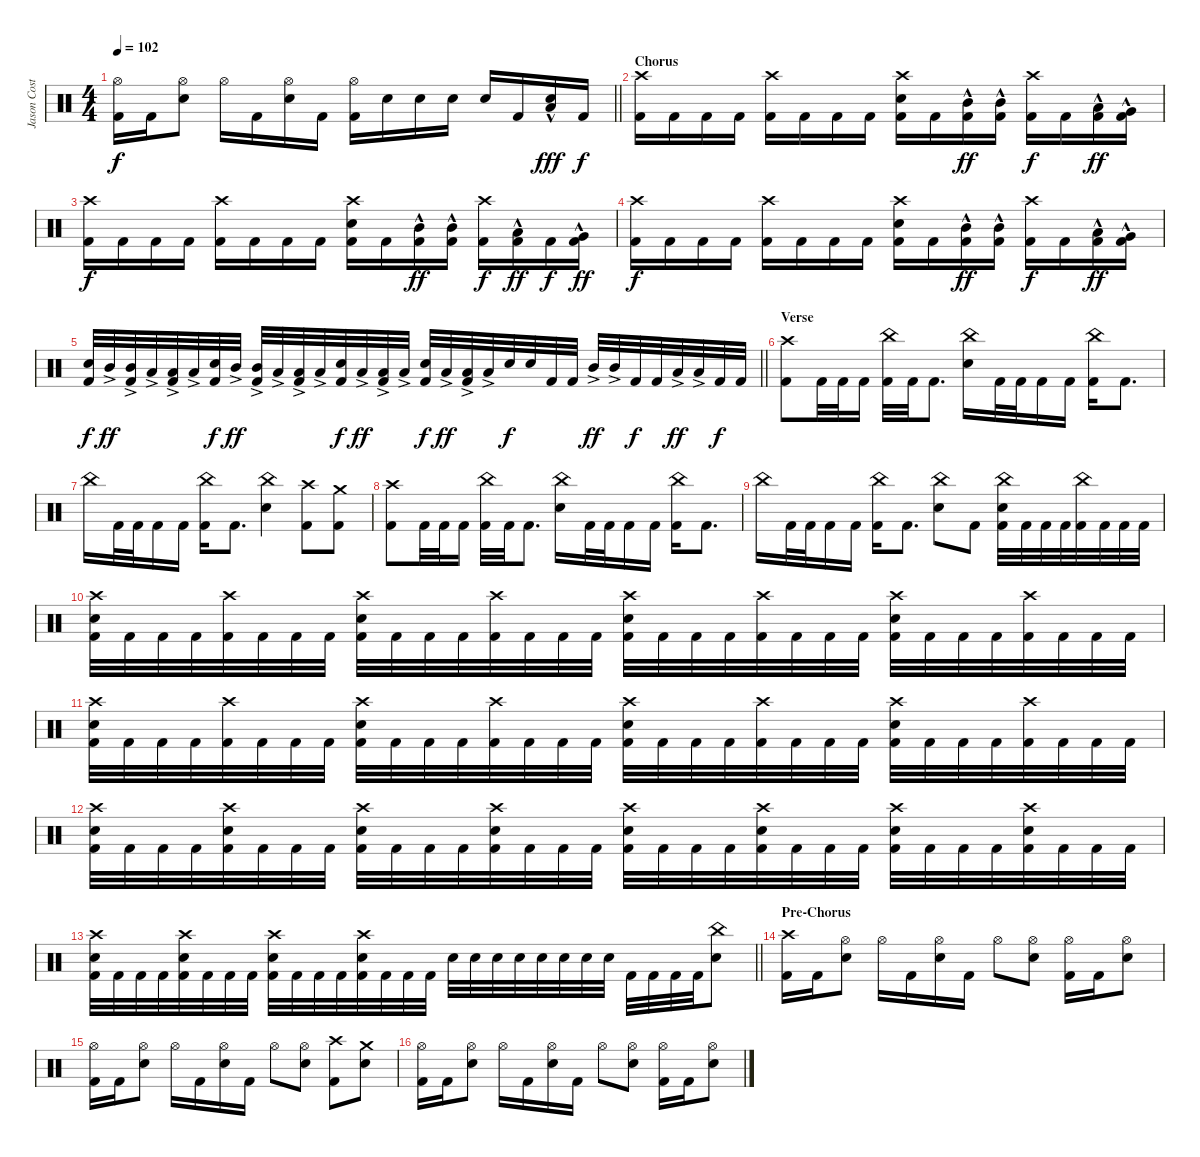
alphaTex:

\track ("Jason Costa" "Jason Cost") {instrument percussion}
\staff {score}
\articulation defaults
\ts (4 4)
\tempo 102
\clef neutral
\barLineRight lightlight
\ks c
("Hi-Hat (open)" "Kick (hit) 2").16{dy f} "Kick (hit) 2".16 ("Snare (hit) 2" "Hi-Hat (open)").8 "Hi-Hat (open)".16 "Kick (hit) 2".16 ("Snare (hit) 2" "Hi-Hat (open)").16 "Kick (hit) 2".16 ("Hi-Hat (open)" "Kick (hit) 2").16 "Snare (hit) 2".16 "Snare (hit) 2".16 "Snare (hit) 2".16 "Snare (hit) 2".16 "Kick (hit) 2".16 ("Snare (hit) 2" "Low Floor Tom (hit)"{hac}).16{dy fff} "Kick (hit) 2".16{dy f} |
\section ("" "Chorus")
("Crash high (hit)" "Kick (hit) 2").16 "Kick (hit) 2".16 "Kick (hit) 2".16 "Kick (hit) 2".16 ("Crash high (hit)" "Kick (hit) 2").16 "Kick (hit) 2".16 "Kick (hit) 2".16 "Kick (hit) 2".16 ("Crash high (hit)" "Snare (hit) 2" "Kick (hit) 2").16 "Kick (hit) 2".16 ("Mid Tom (hit)"{hac} "Kick (hit) 2").16{dy ff} ("Mid Tom (hit)"{hac} "Kick (hit) 2").16 ("Crash high (hit)" "Kick (hit) 2").16{dy f} "Kick (hit) 2".16 ("Low Tom (hit)"{hac} "Kick (hit) 2").16{dy ff} ("Very Low Tom (hit)"{hac} "Kick (hit) 2").16 |
("Crash high (hit)" "Kick (hit) 2").16{dy f} "Kick (hit) 2".16 "Kick (hit) 2".16 "Kick (hit) 2".16 ("Crash high (hit)" "Kick (hit) 2").16 "Kick (hit) 2".16 "Kick (hit) 2".16 "Kick (hit) 2".16 ("Crash high (hit)" "Snare (hit) 2" "Kick (hit) 2").16 "Kick (hit) 2".16 ("Mid Tom (hit)"{hac} "Kick (hit) 2").16{dy ff} ("Mid Tom (hit)"{hac} "Kick (hit) 2").16 ("Crash high (hit)" "Kick (hit) 2").16{dy f} ("Low Tom (hit)"{hac} "Kick (hit) 2").16{dy ff} "Kick (hit) 2".16{dy f} ("Very Low Tom (hit)"{hac} "Kick (hit) 2").16{dy ff} |
("Crash high (hit)" "Kick (hit) 2").16{dy f} "Kick (hit) 2".16 "Kick (hit) 2".16 "Kick (hit) 2".16 ("Crash high (hit)" "Kick (hit) 2").16 "Kick (hit) 2".16 "Kick (hit) 2".16 "Kick (hit) 2".16 ("Crash high (hit)" "Snare (hit) 2" "Kick (hit) 2").16 "Kick (hit) 2".16 ("Mid Tom (hit)"{hac} "Kick (hit) 2").16{dy ff} ("Mid Tom (hit)"{hac} "Kick (hit) 2").16 ("Crash high (hit)" "Kick (hit) 2").16{dy f} "Kick (hit) 2".16 ("Low Tom (hit)"{hac} "Kick (hit) 2").16{dy ff} ("Very Low Tom (hit)"{hac} "Kick (hit) 2").16 |
\barLineRight lightlight
("Snare (hit) 2" "Kick (hit) 2").32{dy f} "Mid Tom (hit)"{ac}.32{dy ff} ("Mid Tom (hit)"{ac} "Kick (hit) 2").32 "Low Tom (hit)"{ac}.32 ("Low Tom (hit)"{ac} "Kick (hit) 2").32 "Low Tom (hit)"{ac}.32 ("Snare (hit) 2" "Kick (hit) 2").32{dy f} "Mid Tom (hit)"{ac}.32{dy ff} ("Mid Tom (hit)"{ac} "Kick (hit) 2").32 "Low Tom (hit)"{ac}.32 ("Low Tom (hit)"{ac} "Kick (hit) 2").32 "Low Tom (hit)"{ac}.32 ("Snare (hit) 2" "Kick (hit) 2").32{dy f} "Low Tom (hit)"{ac}.32{dy ff} ("Low Tom (hit)"{ac} "Kick (hit) 2").32 "Low Tom (hit)"{ac}.32 ("Snare (hit) 2" "Kick (hit) 2").32{dy f} "Low Tom (hit)"{ac}.32{dy ff} ("Low Tom (hit)"{ac} "Kick (hit) 2").32 "Low Tom (hit)"{ac}.32 "Snare (hit) 2".32{dy f} "Snare (hit) 2".32 "Kick (hit) 2".32 "Kick (hit) 2".32 "Mid Tom (hit)"{ac}.32{dy ff} "Mid Tom (hit)"{ac}.32 "Kick (hit) 2".32{dy f} "Kick (hit) 2".32 "Low Tom (hit)"{ac}.32{dy ff} "Low Tom (hit)"{ac}.32 "Kick (hit) 2".32{dy f} "Kick (hit) 2".32 |
\section ("" "Verse")
("Crash high (hit)" "Kick (hit) 2").8 "Kick (hit) 2".32 "Kick (hit) 2".32 "Kick (hit) 2".16 ("China (hit)" "Kick (hit) 2").32 "Kick (hit) 2".32 "Kick (hit) 2".8{d} ("China (hit)" "Snare (hit) 2").16 "Kick (hit) 2".32 "Kick (hit) 2".32 "Kick (hit) 2".16 "Kick (hit) 2".16 ("China (hit)" "Kick (hit) 2").16 "Kick (hit) 2".8{d} |
"China (hit)".16 "Kick (hit) 2".32 "Kick (hit) 2".32 "Kick (hit) 2".16 "Kick (hit) 2".16 ("China (hit)" "Kick (hit) 2").16 "Kick (hit) 2".8{d} ("China (hit)" "Snare (hit) 2").4 ("Crash high (hit)" "Kick (hit) 2").8 ("Crash medium (hit)" "Kick (hit) 2").8 |
("Crash high (hit)" "Kick (hit) 2").8 "Kick (hit) 2".32 "Kick (hit) 2".32 "Kick (hit) 2".16 ("China (hit)" "Kick (hit) 2").32 "Kick (hit) 2".32 "Kick (hit) 2".8{d} ("China (hit)" "Snare (hit) 2").16 "Kick (hit) 2".32 "Kick (hit) 2".32 "Kick (hit) 2".16 "Kick (hit) 2".16 ("China (hit)" "Kick (hit) 2").16 "Kick (hit) 2".8{d} |
"China (hit)".16 "Kick (hit) 2".32 "Kick (hit) 2".32 "Kick (hit) 2".16 "Kick (hit) 2".16 ("China (hit)" "Kick (hit) 2").16 "Kick (hit) 2".8{d} ("China (hit)" "Snare (hit) 2").8 "Kick (hit) 2".8 ("China (hit)" "Snare (hit) 2" "Kick (hit) 2").32 "Kick (hit) 2".32 "Kick (hit) 2".32 "Kick (hit) 2".32 ("China (hit)" "Kick (hit) 2").32 "Kick (hit) 2".32 "Kick (hit) 2".32 "Kick (hit) 2".32 |
("Crash high (hit)" "Snare (hit) 2" "Kick (hit) 2").32 "Kick (hit) 2".32 "Kick (hit) 2".32 "Kick (hit) 2".32 ("Crash high (hit)" "Kick (hit) 2").32 "Kick (hit) 2".32 "Kick (hit) 2".32 "Kick (hit) 2".32 ("Crash high (hit)" "Snare (hit) 2" "Kick (hit) 2").32 "Kick (hit) 2".32 "Kick (hit) 2".32 "Kick (hit) 2".32 ("Crash high (hit)" "Kick (hit) 2").32 "Kick (hit) 2".32 "Kick (hit) 2".32 "Kick (hit) 2".32 ("Crash high (hit)" "Snare (hit) 2" "Kick (hit) 2").32 "Kick (hit) 2".32 "Kick (hit) 2".32 "Kick (hit) 2".32 ("Crash high (hit)" "Kick (hit) 2").32 "Kick (hit) 2".32 "Kick (hit) 2".32 "Kick (hit) 2".32 ("Crash high (hit)" "Snare (hit) 2" "Kick (hit) 2").32 "Kick (hit) 2".32 "Kick (hit) 2".32 "Kick (hit) 2".32 ("Crash high (hit)" "Kick (hit) 2").32 "Kick (hit) 2".32 "Kick (hit) 2".32 "Kick (hit) 2".32 |
("Crash high (hit)" "Snare (hit) 2" "Kick (hit) 2").32 "Kick (hit) 2".32 "Kick (hit) 2".32 "Kick (hit) 2".32 ("Crash high (hit)" "Kick (hit) 2").32 "Kick (hit) 2".32 "Kick (hit) 2".32 "Kick (hit) 2".32 ("Crash high (hit)" "Snare (hit) 2" "Kick (hit) 2").32 "Kick (hit) 2".32 "Kick (hit) 2".32 "Kick (hit) 2".32 ("Crash high (hit)" "Kick (hit) 2").32 "Kick (hit) 2".32 "Kick (hit) 2".32 "Kick (hit) 2".32 ("Crash high (hit)" "Snare (hit) 2" "Kick (hit) 2").32 "Kick (hit) 2".32 "Kick (hit) 2".32 "Kick (hit) 2".32 ("Crash high (hit)" "Kick (hit) 2").32 "Kick (hit) 2".32 "Kick (hit) 2".32 "Kick (hit) 2".32 ("Crash high (hit)" "Snare (hit) 2" "Kick (hit) 2").32 "Kick (hit) 2".32 "Kick (hit) 2".32 "Kick (hit) 2".32 ("Crash high (hit)" "Kick (hit) 2").32 "Kick (hit) 2".32 "Kick (hit) 2".32 "Kick (hit) 2".32 |
("Crash high (hit)" "Snare (hit) 2" "Kick (hit) 2").32 "Kick (hit) 2".32 "Kick (hit) 2".32 "Kick (hit) 2".32 ("Crash high (hit)" "Snare (hit) 2" "Kick (hit) 2").32 "Kick (hit) 2".32 "Kick (hit) 2".32 "Kick (hit) 2".32 ("Crash high (hit)" "Snare (hit) 2" "Kick (hit) 2").32 "Kick (hit) 2".32 "Kick (hit) 2".32 "Kick (hit) 2".32 ("Crash high (hit)" "Snare (hit) 2" "Kick (hit) 2").32 "Kick (hit) 2".32 "Kick (hit) 2".32 "Kick (hit) 2".32 ("Crash high (hit)" "Snare (hit) 2" "Kick (hit) 2").32 "Kick (hit) 2".32 "Kick (hit) 2".32 "Kick (hit) 2".32 ("Crash high (hit)" "Snare (hit) 2" "Kick (hit) 2").32 "Kick (hit) 2".32 "Kick (hit) 2".32 "Kick (hit) 2".32 ("Crash high (hit)" "Snare (hit) 2" "Kick (hit) 2").32 "Kick (hit) 2".32 "Kick (hit) 2".32 "Kick (hit) 2".32 ("Crash high (hit)" "Snare (hit) 2" "Kick (hit) 2").32 "Kick (hit) 2".32 "Kick (hit) 2".32 "Kick (hit) 2".32 |
\barLineRight lightlight
("Crash high (hit)" "Snare (hit) 2" "Kick (hit) 2").32 "Kick (hit) 2".32 "Kick (hit) 2".32 "Kick (hit) 2".32 ("Crash high (hit)" "Snare (hit) 2" "Kick (hit) 2").32 "Kick (hit) 2".32 "Kick (hit) 2".32 "Kick (hit) 2".32 ("Crash high (hit)" "Snare (hit) 2" "Kick (hit) 2").32 "Kick (hit) 2".32 "Kick (hit) 2".32 "Kick (hit) 2".32 ("Crash high (hit)" "Snare (hit) 2" "Kick (hit) 2").32 "Kick (hit) 2".32 "Kick (hit) 2".32 "Kick (hit) 2".32 "Snare (hit) 2".32 "Snare (hit) 2".32 "Snare (hit) 2".32 "Snare (hit) 2".32 "Snare (hit) 2".32 "Snare (hit) 2".32 "Snare (hit) 2".32 "Snare (hit) 2".32 "Kick (hit) 2".32 "Kick (hit) 2".32 "Kick (hit) 2".32 "Kick (hit) 2".32 ("China (hit)" "Snare (hit) 2").8 |
\section ("" "Pre-Chorus")
("Crash high (hit)" "Kick (hit) 2").16 "Kick (hit) 2".16 ("Snare (hit) 2" "Hi-Hat (open)").8 "Hi-Hat (open)".16 "Kick (hit) 2".16 ("Snare (hit) 2" "Hi-Hat (open)").16 "Kick (hit) 2".16 "Hi-Hat (open)".8 ("Snare (hit) 2" "Hi-Hat (open)").8 ("Hi-Hat (open)" "Kick (hit) 2").16 "Kick (hit) 2".16 ("Snare (hit) 2" "Hi-Hat (open)").8 |
("Hi-Hat (open)" "Kick (hit) 2").16 "Kick (hit) 2".16 ("Snare (hit) 2" "Hi-Hat (open)").8 "Hi-Hat (open)".16 "Kick (hit) 2".16 ("Snare (hit) 2" "Hi-Hat (open)").16 "Kick (hit) 2".16 "Hi-Hat (open)".8 ("Snare (hit) 2" "Hi-Hat (open)").8 ("Crash high (hit)" "Kick (hit) 2").8 ("Crash medium (hit)" "Snare (hit) 2").8 |
("Hi-Hat (open)" "Kick (hit) 2").16 "Kick (hit) 2".16 ("Snare (hit) 2" "Hi-Hat (open)").8 "Hi-Hat (open)".16 "Kick (hit) 2".16 ("Snare (hit) 2" "Hi-Hat (open)").16 "Kick (hit) 2".16 "Hi-Hat (open)".8 ("Snare (hit) 2" "Hi-Hat (open)").8 ("Hi-Hat (open)" "Kick (hit) 2").16 "Kick (hit) 2".16 ("Snare (hit) 2" "Hi-Hat (open)").8
